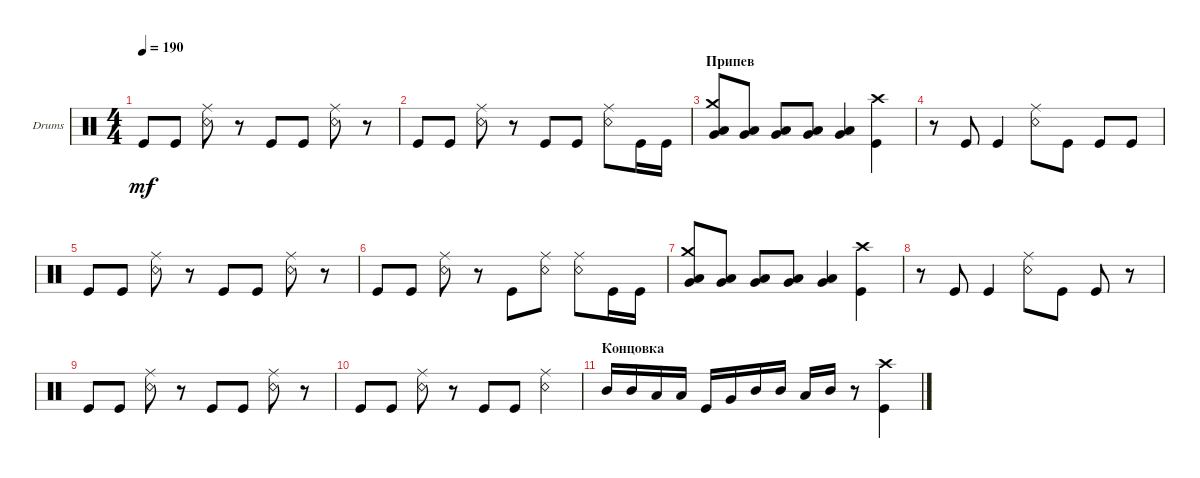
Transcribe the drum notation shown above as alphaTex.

\defaultSystemsLayout 4
\bracketExtendMode groupsimilarinstruments
\firstSystemTrackNameOrientation horizontal
\otherSystemsTrackNameOrientation horizontal
\track ("Drumkit" "Drums") {instrument percussion}
\staff {score}
\articulation defaults
\ts (4 4)
\tempo 190
\clef neutral
\ks c "Kick (hit)".8{dy mf} "Kick (hit)".8
("Snare (rim shot)" "Ride (middle)").8 r.8 "Kick (hit)".8 "Kick (hit)".8 ("Snare (rim shot)" "Ride (middle)").8 r.8 |
"Kick (hit)".8 "Kick (hit)".8 ("Snare (rim shot)" "Ride (middle)").8 r.8 "Kick (hit)".8 "Kick (hit)".8 ("Snare (rim shot)" "Ride (middle)").8 "Kick (hit)".16 "Kick (hit)".16 |
\section ("" "Припев")
("Very Low Tom (hit)" "Crash medium (hit)" "Low Tom (hit)").8 ("Very Low Tom (hit)" "Low Tom (hit)").8 ("Very Low Tom (hit)" "Low Tom (hit)").8 ("Very Low Tom (hit)" "Low Tom (hit)").8 ("Very Low Tom (hit)" "Low Tom (hit)").4 ("Kick (hit)" "Crash high (hit)").4 |
r.8 "Kick (hit)".8 "Kick (hit)".4 ("Snare (rim shot)" "Ride (middle)").8 "Kick (hit)".8 "Kick (hit)".8 "Kick (hit)".8 |
"Kick (hit)".8 "Kick (hit)".8 ("Snare (rim shot)" "Ride (middle)").8 r.8 "Kick (hit)".8 "Kick (hit)".8 ("Snare (rim shot)" "Ride (middle)").8 r.8 |
"Kick (hit)".8 "Kick (hit)".8 ("Snare (rim shot)" "Ride (middle)").8 r.8 "Kick (hit)".8 ("Snare (rim shot)" "Ride (middle)").8 ("Snare (rim shot)" "Ride (middle)").8 "Kick (hit)".16 "Kick (hit)".16 |
("Very Low Tom (hit)" "Crash medium (hit)" "Low Tom (hit)").8 ("Very Low Tom (hit)" "Low Tom (hit)").8 ("Very Low Tom (hit)" "Low Tom (hit)").8 ("Very Low Tom (hit)" "Low Tom (hit)").8 ("Very Low Tom (hit)" "Low Tom (hit)").4 ("Kick (hit)" "Crash high (hit)").4 |
r.8 "Kick (hit)".8 "Kick (hit)".4 ("Snare (rim shot)" "Ride (middle)").8 "Kick (hit)".8 "Kick (hit)".8 r.8 |
"Kick (hit)".8 "Kick (hit)".8 ("Snare (rim shot)" "Ride (middle)").8 r.8 "Kick (hit)".8 "Kick (hit)".8 ("Snare (rim shot)" "Ride (middle)").8 r.8 |
"Kick (hit)".8 "Kick (hit)".8 ("Snare (rim shot)" "Ride (middle)").8 r.8 "Kick (hit)".8 "Kick (hit)".8 ("Snare (rim shot)" "Ride (middle)").4 |
\section ("" "Концовка")
"Mid Tom (hit)".16 "Mid Tom (hit)".16 "Low Tom (hit)".16 "Low Tom (hit)".16 "Kick (hit)".16 "Very Low Tom (hit)".16 "Mid Tom (hit)".16 "Mid Tom (hit)".16 "Low Tom (hit)".16 "Mid Tom (hit)".16 r.8 ("Kick (hit)" "Crash high (hit)").4
